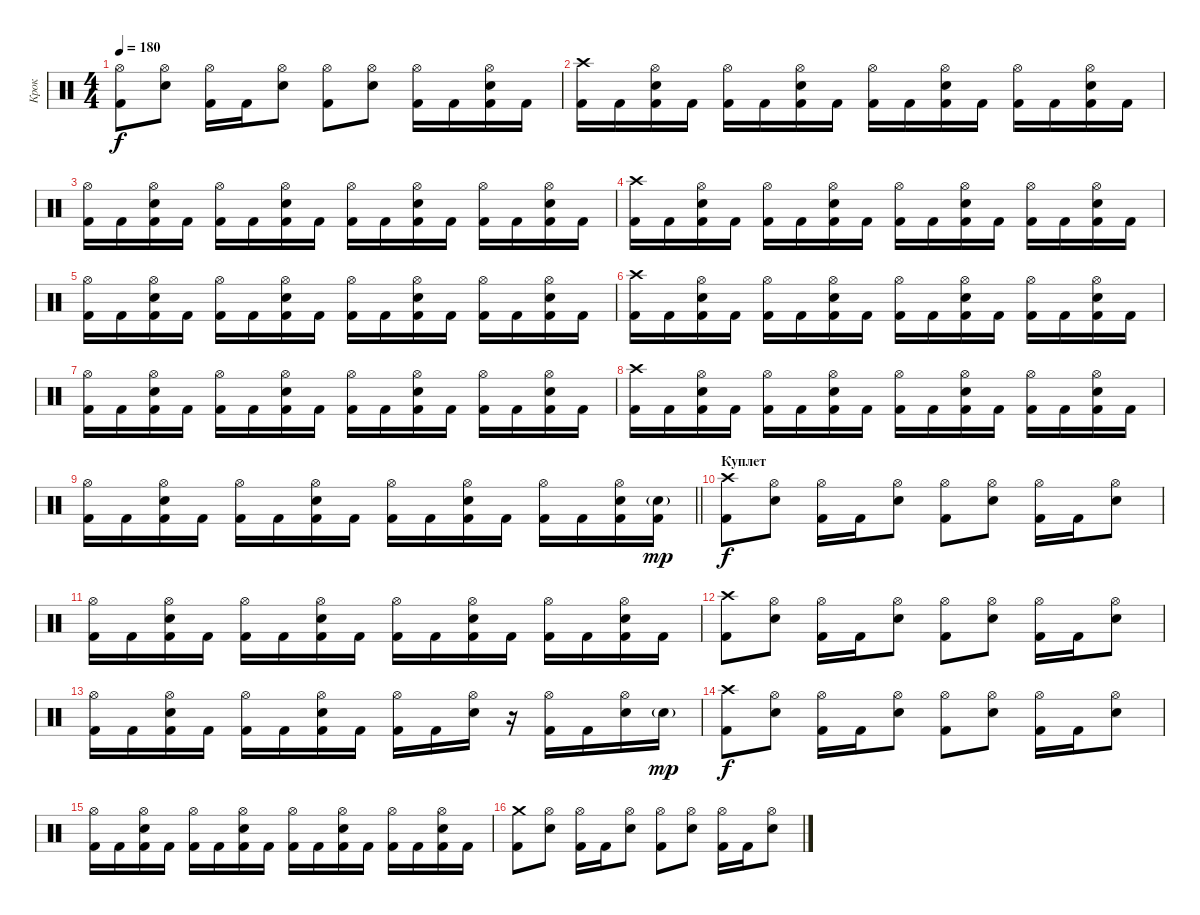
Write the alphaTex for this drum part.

\track ("Крок" "Крок") {instrument percussion}
\staff {score}
\articulation defaults
\ts (4 4)
\tempo 180
\clef neutral
\ks c
("Kick (hit) 2" "Hi-Hat (open)").8{dy f} ("Electric Snare (hit)" "Hi-Hat (open)").8 ("Kick (hit) 2" "Hi-Hat (open)").16 "Kick (hit) 2".16 ("Electric Snare (hit)" "Hi-Hat (open)").8 ("Kick (hit) 2" "Hi-Hat (open)").8 ("Electric Snare (hit)" "Hi-Hat (open)").8 ("Kick (hit) 2" "Hi-Hat (open)").16 "Kick (hit) 2".16 ("Kick (hit) 2" "Electric Snare (hit)" "Hi-Hat (open)").16 "Kick (hit) 2".16 |
("Kick (hit) 2" "Crash high (hit)").16 "Kick (hit) 2".16 ("Kick (hit) 2" "Electric Snare (hit)" "Hi-Hat (open)").16 "Kick (hit) 2".16 ("Kick (hit) 2" "Hi-Hat (open)").16 "Kick (hit) 2".16 ("Kick (hit) 2" "Electric Snare (hit)" "Hi-Hat (open)").16 "Kick (hit) 2".16 ("Kick (hit) 2" "Hi-Hat (open)").16 "Kick (hit) 2".16 ("Kick (hit) 2" "Electric Snare (hit)" "Hi-Hat (open)").16 "Kick (hit) 2".16 ("Kick (hit) 2" "Hi-Hat (open)").16 "Kick (hit) 2".16 ("Kick (hit) 2" "Electric Snare (hit)" "Hi-Hat (open)").16 "Kick (hit) 2".16 |
("Kick (hit) 2" "Hi-Hat (open)").16 "Kick (hit) 2".16 ("Kick (hit) 2" "Electric Snare (hit)" "Hi-Hat (open)").16 "Kick (hit) 2".16 ("Kick (hit) 2" "Hi-Hat (open)").16 "Kick (hit) 2".16 ("Kick (hit) 2" "Electric Snare (hit)" "Hi-Hat (open)").16 "Kick (hit) 2".16 ("Kick (hit) 2" "Hi-Hat (open)").16 "Kick (hit) 2".16 ("Kick (hit) 2" "Electric Snare (hit)" "Hi-Hat (open)").16 "Kick (hit) 2".16 ("Kick (hit) 2" "Hi-Hat (open)").16 "Kick (hit) 2".16 ("Kick (hit) 2" "Electric Snare (hit)" "Hi-Hat (open)").16 "Kick (hit) 2".16 |
("Kick (hit) 2" "Crash high (hit)").16 "Kick (hit) 2".16 ("Kick (hit) 2" "Electric Snare (hit)" "Hi-Hat (open)").16 "Kick (hit) 2".16 ("Kick (hit) 2" "Hi-Hat (open)").16 "Kick (hit) 2".16 ("Kick (hit) 2" "Electric Snare (hit)" "Hi-Hat (open)").16 "Kick (hit) 2".16 ("Kick (hit) 2" "Hi-Hat (open)").16 "Kick (hit) 2".16 ("Kick (hit) 2" "Electric Snare (hit)" "Hi-Hat (open)").16 "Kick (hit) 2".16 ("Kick (hit) 2" "Hi-Hat (open)").16 "Kick (hit) 2".16 ("Kick (hit) 2" "Electric Snare (hit)" "Hi-Hat (open)").16 "Kick (hit) 2".16 |
("Kick (hit) 2" "Hi-Hat (open)").16 "Kick (hit) 2".16 ("Kick (hit) 2" "Electric Snare (hit)" "Hi-Hat (open)").16 "Kick (hit) 2".16 ("Kick (hit) 2" "Hi-Hat (open)").16 "Kick (hit) 2".16 ("Kick (hit) 2" "Electric Snare (hit)" "Hi-Hat (open)").16 "Kick (hit) 2".16 ("Kick (hit) 2" "Hi-Hat (open)").16 "Kick (hit) 2".16 ("Kick (hit) 2" "Electric Snare (hit)" "Hi-Hat (open)").16 "Kick (hit) 2".16 ("Kick (hit) 2" "Hi-Hat (open)").16 "Kick (hit) 2".16 ("Kick (hit) 2" "Electric Snare (hit)" "Hi-Hat (open)").16 "Kick (hit) 2".16 |
("Kick (hit) 2" "Crash high (hit)").16 "Kick (hit) 2".16 ("Kick (hit) 2" "Electric Snare (hit)" "Hi-Hat (open)").16 "Kick (hit) 2".16 ("Kick (hit) 2" "Hi-Hat (open)").16 "Kick (hit) 2".16 ("Kick (hit) 2" "Electric Snare (hit)" "Hi-Hat (open)").16 "Kick (hit) 2".16 ("Kick (hit) 2" "Hi-Hat (open)").16 "Kick (hit) 2".16 ("Kick (hit) 2" "Electric Snare (hit)" "Hi-Hat (open)").16 "Kick (hit) 2".16 ("Kick (hit) 2" "Hi-Hat (open)").16 "Kick (hit) 2".16 ("Kick (hit) 2" "Electric Snare (hit)" "Hi-Hat (open)").16 "Kick (hit) 2".16 |
("Kick (hit) 2" "Hi-Hat (open)").16 "Kick (hit) 2".16 ("Kick (hit) 2" "Electric Snare (hit)" "Hi-Hat (open)").16 "Kick (hit) 2".16 ("Kick (hit) 2" "Hi-Hat (open)").16 "Kick (hit) 2".16 ("Kick (hit) 2" "Electric Snare (hit)" "Hi-Hat (open)").16 "Kick (hit) 2".16 ("Kick (hit) 2" "Hi-Hat (open)").16 "Kick (hit) 2".16 ("Kick (hit) 2" "Electric Snare (hit)" "Hi-Hat (open)").16 "Kick (hit) 2".16 ("Kick (hit) 2" "Hi-Hat (open)").16 "Kick (hit) 2".16 ("Kick (hit) 2" "Electric Snare (hit)" "Hi-Hat (open)").16 "Kick (hit) 2".16 |
("Kick (hit) 2" "Crash high (hit)").16 "Kick (hit) 2".16 ("Kick (hit) 2" "Electric Snare (hit)" "Hi-Hat (open)").16 "Kick (hit) 2".16 ("Kick (hit) 2" "Hi-Hat (open)").16 "Kick (hit) 2".16 ("Kick (hit) 2" "Electric Snare (hit)" "Hi-Hat (open)").16 "Kick (hit) 2".16 ("Kick (hit) 2" "Hi-Hat (open)").16 "Kick (hit) 2".16 ("Kick (hit) 2" "Electric Snare (hit)" "Hi-Hat (open)").16 "Kick (hit) 2".16 ("Kick (hit) 2" "Hi-Hat (open)").16 "Kick (hit) 2".16 ("Kick (hit) 2" "Electric Snare (hit)" "Hi-Hat (open)").16 "Kick (hit) 2".16 |
\barLineRight lightlight
("Kick (hit) 2" "Hi-Hat (open)").16 "Kick (hit) 2".16 ("Kick (hit) 2" "Electric Snare (hit)" "Hi-Hat (open)").16 "Kick (hit) 2".16 ("Kick (hit) 2" "Hi-Hat (open)").16 "Kick (hit) 2".16 ("Kick (hit) 2" "Electric Snare (hit)" "Hi-Hat (open)").16 "Kick (hit) 2".16 ("Kick (hit) 2" "Hi-Hat (open)").16 "Kick (hit) 2".16 ("Kick (hit) 2" "Electric Snare (hit)" "Hi-Hat (open)").16 "Kick (hit) 2".16 ("Kick (hit) 2" "Hi-Hat (open)").16 "Kick (hit) 2".16 ("Kick (hit) 2" "Electric Snare (hit)" "Hi-Hat (open)").16 ("Kick (hit) 2" "Electric Snare (hit)"{g}).16{dy mp} |
\section ("" "Куплет")
("Kick (hit) 2" "Crash high (hit)").8{dy f} ("Electric Snare (hit)" "Hi-Hat (open)").8 ("Kick (hit) 2" "Hi-Hat (open)").16 "Kick (hit) 2".16 ("Electric Snare (hit)" "Hi-Hat (open)").8 ("Kick (hit) 2" "Hi-Hat (open)").8 ("Electric Snare (hit)" "Hi-Hat (open)").8 ("Kick (hit) 2" "Hi-Hat (open)").16 "Kick (hit) 2".16 ("Electric Snare (hit)" "Hi-Hat (open)").8 |
("Kick (hit) 2" "Hi-Hat (open)").16 "Kick (hit) 2".16 ("Kick (hit) 2" "Electric Snare (hit)" "Hi-Hat (open)").16 "Kick (hit) 2".16 ("Kick (hit) 2" "Hi-Hat (open)").16 "Kick (hit) 2".16 ("Kick (hit) 2" "Electric Snare (hit)" "Hi-Hat (open)").16 "Kick (hit) 2".16 ("Kick (hit) 2" "Hi-Hat (open)").16 "Kick (hit) 2".16 ("Kick (hit) 2" "Electric Snare (hit)" "Hi-Hat (open)").16 "Kick (hit) 2".16 ("Kick (hit) 2" "Hi-Hat (open)").16 "Kick (hit) 2".16 ("Kick (hit) 2" "Electric Snare (hit)" "Hi-Hat (open)").16 "Kick (hit) 2".16 |
("Kick (hit) 2" "Crash high (hit)").8 ("Electric Snare (hit)" "Hi-Hat (open)").8 ("Kick (hit) 2" "Hi-Hat (open)").16 "Kick (hit) 2".16 ("Electric Snare (hit)" "Hi-Hat (open)").8 ("Kick (hit) 2" "Hi-Hat (open)").8 ("Electric Snare (hit)" "Hi-Hat (open)").8 ("Kick (hit) 2" "Hi-Hat (open)").16 "Kick (hit) 2".16 ("Electric Snare (hit)" "Hi-Hat (open)").8 |
("Kick (hit) 2" "Hi-Hat (open)").16 "Kick (hit) 2".16 ("Kick (hit) 2" "Electric Snare (hit)" "Hi-Hat (open)").16 "Kick (hit) 2".16 ("Kick (hit) 2" "Hi-Hat (open)").16 "Kick (hit) 2".16 ("Kick (hit) 2" "Electric Snare (hit)" "Hi-Hat (open)").16 "Kick (hit) 2".16 ("Kick (hit) 2" "Hi-Hat (open)").16 "Kick (hit) 2".16 ("Electric Snare (hit)" "Hi-Hat (open)").16 r.16 ("Kick (hit) 2" "Hi-Hat (open)").16 "Kick (hit) 2".16 ("Electric Snare (hit)" "Hi-Hat (open)").16 "Electric Snare (hit)"{g}.16{dy mp} |
("Kick (hit) 2" "Crash high (hit)").8{dy f} ("Electric Snare (hit)" "Hi-Hat (open)").8 ("Kick (hit) 2" "Hi-Hat (open)").16 "Kick (hit) 2".16 ("Electric Snare (hit)" "Hi-Hat (open)").8 ("Kick (hit) 2" "Hi-Hat (open)").8 ("Electric Snare (hit)" "Hi-Hat (open)").8 ("Kick (hit) 2" "Hi-Hat (open)").16 "Kick (hit) 2".16 ("Electric Snare (hit)" "Hi-Hat (open)").8 |
("Kick (hit) 2" "Hi-Hat (open)").16 "Kick (hit) 2".16 ("Kick (hit) 2" "Electric Snare (hit)" "Hi-Hat (open)").16 "Kick (hit) 2".16 ("Kick (hit) 2" "Hi-Hat (open)").16 "Kick (hit) 2".16 ("Kick (hit) 2" "Electric Snare (hit)" "Hi-Hat (open)").16 "Kick (hit) 2".16 ("Kick (hit) 2" "Hi-Hat (open)").16 "Kick (hit) 2".16 ("Kick (hit) 2" "Electric Snare (hit)" "Hi-Hat (open)").16 "Kick (hit) 2".16 ("Kick (hit) 2" "Hi-Hat (open)").16 "Kick (hit) 2".16 ("Kick (hit) 2" "Electric Snare (hit)" "Hi-Hat (open)").16 "Kick (hit) 2".16 |
("Kick (hit) 2" "Crash medium (hit)").8 ("Electric Snare (hit)" "Hi-Hat (open)").8 ("Kick (hit) 2" "Hi-Hat (open)").16 "Kick (hit) 2".16 ("Electric Snare (hit)" "Hi-Hat (open)").8 ("Kick (hit) 2" "Hi-Hat (open)").8 ("Electric Snare (hit)" "Hi-Hat (open)").8 ("Kick (hit) 2" "Hi-Hat (open)").16 "Kick (hit) 2".16 ("Electric Snare (hit)" "Hi-Hat (open)").8
